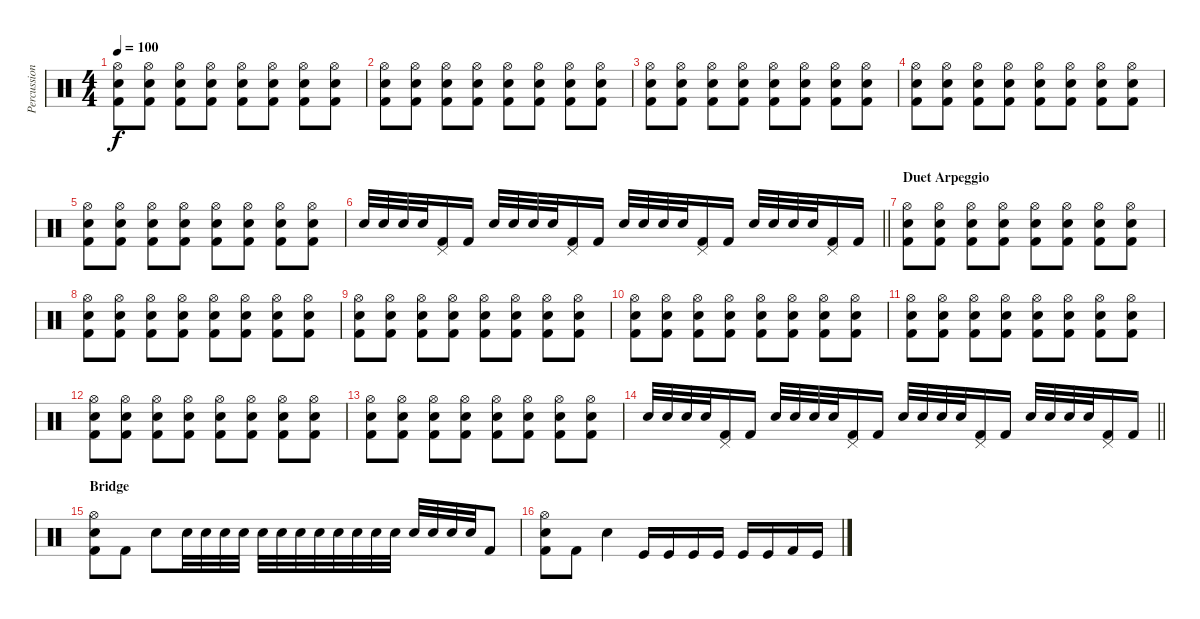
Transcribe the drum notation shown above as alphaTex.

\track ("Percussion" "Percussion") {instrument percussion}
\staff {score}
\articulation defaults
\ts (4 4)
\tempo 100
\clef neutral
\ks c
("Hi-Hat (open)" "Electric Snare (hit)" "Kick (hit) 2").8{dy f} ("Hi-Hat (open)" "Electric Snare (hit)" "Kick (hit) 2").8 ("Hi-Hat (open)" "Electric Snare (hit)" "Kick (hit) 2").8 ("Hi-Hat (open)" "Electric Snare (hit)" "Kick (hit) 2").8 ("Hi-Hat (open)" "Electric Snare (hit)" "Kick (hit) 2").8 ("Hi-Hat (open)" "Electric Snare (hit)" "Kick (hit) 2").8 ("Hi-Hat (open)" "Electric Snare (hit)" "Kick (hit) 2").8 ("Hi-Hat (open)" "Electric Snare (hit)" "Kick (hit) 2").8 |
("Hi-Hat (open)" "Electric Snare (hit)" "Kick (hit) 2").8 ("Hi-Hat (open)" "Electric Snare (hit)" "Kick (hit) 2").8 ("Hi-Hat (open)" "Electric Snare (hit)" "Kick (hit) 2").8 ("Hi-Hat (open)" "Electric Snare (hit)" "Kick (hit) 2").8 ("Hi-Hat (open)" "Electric Snare (hit)" "Kick (hit) 2").8 ("Hi-Hat (open)" "Electric Snare (hit)" "Kick (hit) 2").8 ("Hi-Hat (open)" "Electric Snare (hit)" "Kick (hit) 2").8 ("Hi-Hat (open)" "Electric Snare (hit)" "Kick (hit) 2").8 |
("Hi-Hat (open)" "Electric Snare (hit)" "Kick (hit) 2").8 ("Hi-Hat (open)" "Electric Snare (hit)" "Kick (hit) 2").8 ("Hi-Hat (open)" "Electric Snare (hit)" "Kick (hit) 2").8 ("Hi-Hat (open)" "Electric Snare (hit)" "Kick (hit) 2").8 ("Hi-Hat (open)" "Electric Snare (hit)" "Kick (hit) 2").8 ("Hi-Hat (open)" "Electric Snare (hit)" "Kick (hit) 2").8 ("Hi-Hat (open)" "Electric Snare (hit)" "Kick (hit) 2").8 ("Hi-Hat (open)" "Electric Snare (hit)" "Kick (hit) 2").8 |
("Hi-Hat (open)" "Electric Snare (hit)" "Kick (hit) 2").8 ("Hi-Hat (open)" "Electric Snare (hit)" "Kick (hit) 2").8 ("Hi-Hat (open)" "Electric Snare (hit)" "Kick (hit) 2").8 ("Hi-Hat (open)" "Electric Snare (hit)" "Kick (hit) 2").8 ("Hi-Hat (open)" "Electric Snare (hit)" "Kick (hit) 2").8 ("Hi-Hat (open)" "Electric Snare (hit)" "Kick (hit) 2").8 ("Hi-Hat (open)" "Electric Snare (hit)" "Kick (hit) 2").8 ("Hi-Hat (open)" "Electric Snare (hit)" "Kick (hit) 2").8 |
("Hi-Hat (open)" "Electric Snare (hit)" "Kick (hit) 2").8 ("Hi-Hat (open)" "Electric Snare (hit)" "Kick (hit) 2").8 ("Hi-Hat (open)" "Electric Snare (hit)" "Kick (hit) 2").8 ("Hi-Hat (open)" "Electric Snare (hit)" "Kick (hit) 2").8 ("Hi-Hat (open)" "Electric Snare (hit)" "Kick (hit) 2").8 ("Hi-Hat (open)" "Electric Snare (hit)" "Kick (hit) 2").8 ("Hi-Hat (open)" "Electric Snare (hit)" "Kick (hit) 2").8 ("Hi-Hat (open)" "Electric Snare (hit)" "Kick (hit) 2").8 |
\barLineRight lightlight "Electric Snare (hit)".32 "Electric Snare (hit)".32 "Electric Snare (hit)".32 "Electric Snare (hit)".32
("Pedal Hi-Hat (hit)" "Kick (hit) 2").16 "Kick (hit) 2".16 "Electric Snare (hit)".32 "Electric Snare (hit)".32 "Electric Snare (hit)".32 "Electric Snare (hit)".32 ("Pedal Hi-Hat (hit)" "Kick (hit) 2").16 "Kick (hit) 2".16 "Electric Snare (hit)".32 "Electric Snare (hit)".32 "Electric Snare (hit)".32 "Electric Snare (hit)".32 ("Pedal Hi-Hat (hit)" "Kick (hit) 2").16 "Kick (hit) 2".16 "Electric Snare (hit)".32 "Electric Snare (hit)".32 "Electric Snare (hit)".32 "Electric Snare (hit)".32 ("Pedal Hi-Hat (hit)" "Kick (hit) 2").16 "Kick (hit) 2".16 |
\section ("" "Duet Arpeggio")
("Hi-Hat (open)" "Electric Snare (hit)" "Kick (hit) 2").8 ("Hi-Hat (open)" "Electric Snare (hit)" "Kick (hit) 2").8 ("Hi-Hat (open)" "Electric Snare (hit)" "Kick (hit) 2").8 ("Hi-Hat (open)" "Electric Snare (hit)" "Kick (hit) 2").8 ("Hi-Hat (open)" "Electric Snare (hit)" "Kick (hit) 2").8 ("Hi-Hat (open)" "Electric Snare (hit)" "Kick (hit) 2").8 ("Hi-Hat (open)" "Electric Snare (hit)" "Kick (hit) 2").8 ("Hi-Hat (open)" "Electric Snare (hit)" "Kick (hit) 2").8 |
("Hi-Hat (open)" "Electric Snare (hit)" "Kick (hit) 2").8 ("Hi-Hat (open)" "Electric Snare (hit)" "Kick (hit) 2").8 ("Hi-Hat (open)" "Electric Snare (hit)" "Kick (hit) 2").8 ("Hi-Hat (open)" "Electric Snare (hit)" "Kick (hit) 2").8 ("Hi-Hat (open)" "Electric Snare (hit)" "Kick (hit) 2").8 ("Hi-Hat (open)" "Electric Snare (hit)" "Kick (hit) 2").8 ("Hi-Hat (open)" "Electric Snare (hit)" "Kick (hit) 2").8 ("Hi-Hat (open)" "Electric Snare (hit)" "Kick (hit) 2").8 |
("Hi-Hat (open)" "Electric Snare (hit)" "Kick (hit) 2").8 ("Hi-Hat (open)" "Electric Snare (hit)" "Kick (hit) 2").8 ("Hi-Hat (open)" "Electric Snare (hit)" "Kick (hit) 2").8 ("Hi-Hat (open)" "Electric Snare (hit)" "Kick (hit) 2").8 ("Hi-Hat (open)" "Electric Snare (hit)" "Kick (hit) 2").8 ("Hi-Hat (open)" "Electric Snare (hit)" "Kick (hit) 2").8 ("Hi-Hat (open)" "Electric Snare (hit)" "Kick (hit) 2").8 ("Hi-Hat (open)" "Electric Snare (hit)" "Kick (hit) 2").8 |
("Hi-Hat (open)" "Electric Snare (hit)" "Kick (hit) 2").8 ("Hi-Hat (open)" "Electric Snare (hit)" "Kick (hit) 2").8 ("Hi-Hat (open)" "Electric Snare (hit)" "Kick (hit) 2").8 ("Hi-Hat (open)" "Electric Snare (hit)" "Kick (hit) 2").8 ("Hi-Hat (open)" "Electric Snare (hit)" "Kick (hit) 2").8 ("Hi-Hat (open)" "Electric Snare (hit)" "Kick (hit) 2").8 ("Hi-Hat (open)" "Electric Snare (hit)" "Kick (hit) 2").8 ("Hi-Hat (open)" "Electric Snare (hit)" "Kick (hit) 2").8 |
("Hi-Hat (open)" "Electric Snare (hit)" "Kick (hit) 2").8 ("Hi-Hat (open)" "Electric Snare (hit)" "Kick (hit) 2").8 ("Hi-Hat (open)" "Electric Snare (hit)" "Kick (hit) 2").8 ("Hi-Hat (open)" "Electric Snare (hit)" "Kick (hit) 2").8 ("Hi-Hat (open)" "Electric Snare (hit)" "Kick (hit) 2").8 ("Hi-Hat (open)" "Electric Snare (hit)" "Kick (hit) 2").8 ("Hi-Hat (open)" "Electric Snare (hit)" "Kick (hit) 2").8 ("Hi-Hat (open)" "Electric Snare (hit)" "Kick (hit) 2").8 |
("Hi-Hat (open)" "Electric Snare (hit)" "Kick (hit) 2").8 ("Hi-Hat (open)" "Electric Snare (hit)" "Kick (hit) 2").8 ("Hi-Hat (open)" "Electric Snare (hit)" "Kick (hit) 2").8 ("Hi-Hat (open)" "Electric Snare (hit)" "Kick (hit) 2").8 ("Hi-Hat (open)" "Electric Snare (hit)" "Kick (hit) 2").8 ("Hi-Hat (open)" "Electric Snare (hit)" "Kick (hit) 2").8 ("Hi-Hat (open)" "Electric Snare (hit)" "Kick (hit) 2").8 ("Hi-Hat (open)" "Electric Snare (hit)" "Kick (hit) 2").8 |
("Hi-Hat (open)" "Electric Snare (hit)" "Kick (hit) 2").8 ("Hi-Hat (open)" "Electric Snare (hit)" "Kick (hit) 2").8 ("Hi-Hat (open)" "Electric Snare (hit)" "Kick (hit) 2").8 ("Hi-Hat (open)" "Electric Snare (hit)" "Kick (hit) 2").8 ("Hi-Hat (open)" "Electric Snare (hit)" "Kick (hit) 2").8 ("Hi-Hat (open)" "Electric Snare (hit)" "Kick (hit) 2").8 ("Hi-Hat (open)" "Electric Snare (hit)" "Kick (hit) 2").8 ("Hi-Hat (open)" "Electric Snare (hit)" "Kick (hit) 2").8 |
\barLineRight lightlight "Electric Snare (hit)".32 "Electric Snare (hit)".32 "Electric Snare (hit)".32 "Electric Snare (hit)".32
("Pedal Hi-Hat (hit)" "Kick (hit) 2").16 "Kick (hit) 2".16 "Electric Snare (hit)".32 "Electric Snare (hit)".32 "Electric Snare (hit)".32 "Electric Snare (hit)".32 ("Pedal Hi-Hat (hit)" "Kick (hit) 2").16 "Kick (hit) 2".16 "Electric Snare (hit)".32 "Electric Snare (hit)".32 "Electric Snare (hit)".32 "Electric Snare (hit)".32 ("Pedal Hi-Hat (hit)" "Kick (hit) 2").16 "Kick (hit) 2".16 "Electric Snare (hit)".32 "Electric Snare (hit)".32 "Electric Snare (hit)".32 "Electric Snare (hit)".32 ("Pedal Hi-Hat (hit)" "Kick (hit) 2").16 "Kick (hit) 2".16 |
\section ("" "Bridge")
("Hi-Hat (open)" "Electric Snare (hit)" "Kick (hit) 2").8 "Kick (hit) 2".8 "Electric Snare (hit)".8 "Electric Snare (hit)".32 "Electric Snare (hit)".32 "Electric Snare (hit)".32 "Electric Snare (hit)".32 "Electric Snare (hit)".32 "Electric Snare (hit)".32 "Electric Snare (hit)".32 "Electric Snare (hit)".32 "Electric Snare (hit)".32 "Electric Snare (hit)".32 "Electric Snare (hit)".32 "Electric Snare (hit)".32 "Electric Snare (hit)".32 "Electric Snare (hit)".32 "Electric Snare (hit)".32 "Electric Snare (hit)".32 "Kick (hit) 2".8 |
("Hi-Hat (open)" "Electric Snare (hit)" "Kick (hit) 2").8 "Kick (hit) 2".8 "Electric Snare (hit)".4 "Kick (hit)".16 "Kick (hit)".16 "Kick (hit)".16 "Kick (hit)".16 "Kick (hit)".16 "Kick (hit)".16 "Kick (hit) 2".16 "Kick (hit)".16
